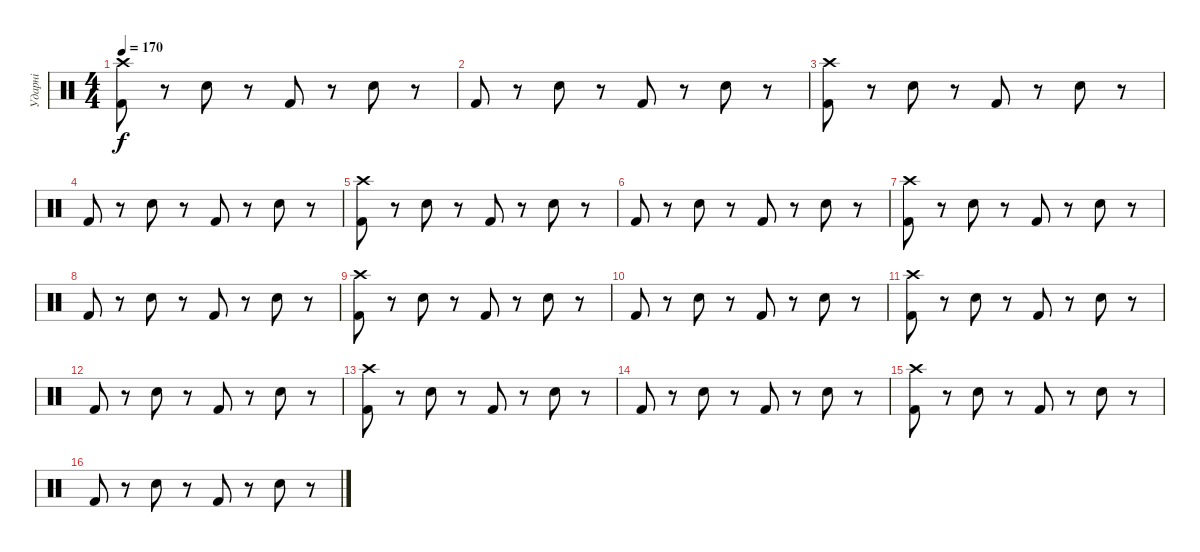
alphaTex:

\track ("Ударні" "Ударні") {instrument percussion}
\staff {score}
\articulation defaults
\ts (4 4)
\tempo 170
\clef neutral
\ks c
("Kick (hit) 2" "Crash high (hit)").8{dy f} r.8 "Electric Snare (hit)".8 r.8 "Kick (hit) 2".8 r.8 "Electric Snare (hit)".8 r.8 |
"Kick (hit) 2".8 r.8 "Electric Snare (hit)".8 r.8 "Kick (hit) 2".8 r.8 "Electric Snare (hit)".8 r.8 |
("Kick (hit) 2" "Crash high (hit)").8 r.8 "Electric Snare (hit)".8 r.8 "Kick (hit) 2".8 r.8 "Electric Snare (hit)".8 r.8 |
"Kick (hit) 2".8 r.8 "Electric Snare (hit)".8 r.8 "Kick (hit) 2".8 r.8 "Electric Snare (hit)".8 r.8 |
("Kick (hit) 2" "Crash high (hit)").8 r.8 "Electric Snare (hit)".8 r.8 "Kick (hit) 2".8 r.8 "Electric Snare (hit)".8 r.8 |
"Kick (hit) 2".8 r.8 "Electric Snare (hit)".8 r.8 "Kick (hit) 2".8 r.8 "Electric Snare (hit)".8 r.8 |
("Kick (hit) 2" "Crash high (hit)").8 r.8 "Electric Snare (hit)".8 r.8 "Kick (hit) 2".8 r.8 "Electric Snare (hit)".8 r.8 |
"Kick (hit) 2".8 r.8 "Electric Snare (hit)".8 r.8 "Kick (hit) 2".8 r.8 "Electric Snare (hit)".8 r.8 |
("Kick (hit) 2" "Crash high (hit)").8 r.8 "Electric Snare (hit)".8 r.8 "Kick (hit) 2".8 r.8 "Electric Snare (hit)".8 r.8 |
"Kick (hit) 2".8 r.8 "Electric Snare (hit)".8 r.8 "Kick (hit) 2".8 r.8 "Electric Snare (hit)".8 r.8 |
("Kick (hit) 2" "Crash high (hit)").8 r.8 "Electric Snare (hit)".8 r.8 "Kick (hit) 2".8 r.8 "Electric Snare (hit)".8 r.8 |
"Kick (hit) 2".8 r.8 "Electric Snare (hit)".8 r.8 "Kick (hit) 2".8 r.8 "Electric Snare (hit)".8 r.8 |
("Kick (hit) 2" "Crash high (hit)").8 r.8 "Electric Snare (hit)".8 r.8 "Kick (hit) 2".8 r.8 "Electric Snare (hit)".8 r.8 |
"Kick (hit) 2".8 r.8 "Electric Snare (hit)".8 r.8 "Kick (hit) 2".8 r.8 "Electric Snare (hit)".8 r.8 |
("Kick (hit) 2" "Crash high (hit)").8 r.8 "Electric Snare (hit)".8 r.8 "Kick (hit) 2".8 r.8 "Electric Snare (hit)".8 r.8 |
"Kick (hit) 2".8 r.8 "Electric Snare (hit)".8 r.8 "Kick (hit) 2".8 r.8 "Electric Snare (hit)".8 r.8
